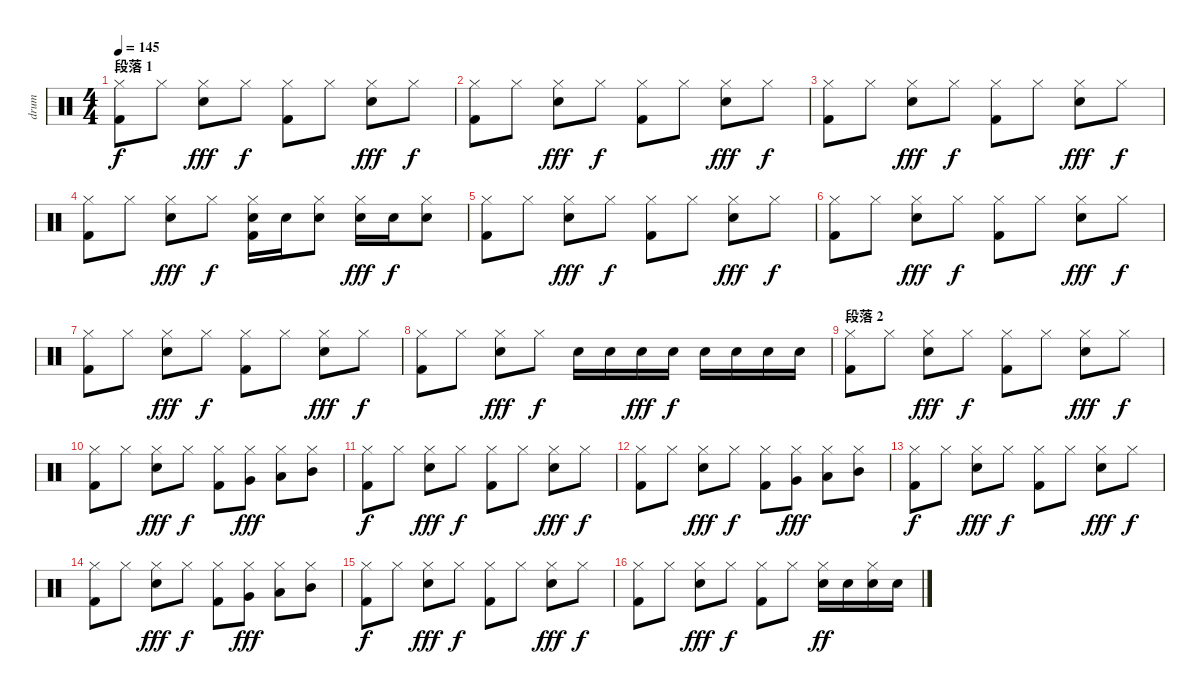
\track ("drum" "drum") {instrument percussion}
\staff {score}
\articulation defaults
\ts (4 4)
\section ("" "段落 1")
\tempo 145
\clef neutral
\ks c
("Hi-Hat (closed)" "Kick (hit) 2").8{dy f} "Hi-Hat (closed)".8 ("Hi-Hat (closed)" "Electric Snare (hit)").8{dy fff} "Hi-Hat (closed)".8{dy f} ("Hi-Hat (closed)" "Kick (hit) 2").8 "Hi-Hat (closed)".8 ("Hi-Hat (closed)" "Electric Snare (hit)").8{dy fff} "Hi-Hat (closed)".8{dy f} |
("Hi-Hat (closed)" "Kick (hit) 2").8 "Hi-Hat (closed)".8 ("Hi-Hat (closed)" "Electric Snare (hit)").8{dy fff} "Hi-Hat (closed)".8{dy f} ("Hi-Hat (closed)" "Kick (hit) 2").8 "Hi-Hat (closed)".8 ("Hi-Hat (closed)" "Electric Snare (hit)").8{dy fff} "Hi-Hat (closed)".8{dy f} |
("Hi-Hat (closed)" "Kick (hit) 2").8 "Hi-Hat (closed)".8 ("Hi-Hat (closed)" "Electric Snare (hit)").8{dy fff} "Hi-Hat (closed)".8{dy f} ("Hi-Hat (closed)" "Kick (hit) 2").8 "Hi-Hat (closed)".8 ("Hi-Hat (closed)" "Electric Snare (hit)").8{dy fff} "Hi-Hat (closed)".8{dy f} |
("Hi-Hat (closed)" "Kick (hit) 2").8 "Hi-Hat (closed)".8 ("Hi-Hat (closed)" "Electric Snare (hit)").8{dy fff} "Hi-Hat (closed)".8{dy f} ("Hi-Hat (closed)" "Electric Snare (hit)" "Kick (hit) 2").16 "Electric Snare (hit)".16 ("Hi-Hat (closed)" "Electric Snare (hit)").8 ("Hi-Hat (closed)" "Electric Snare (hit)").16{dy fff} "Electric Snare (hit)".16{dy f} ("Hi-Hat (closed)" "Electric Snare (hit)").8 |
("Hi-Hat (closed)" "Kick (hit) 2").8 "Hi-Hat (closed)".8 ("Hi-Hat (closed)" "Electric Snare (hit)").8{dy fff} "Hi-Hat (closed)".8{dy f} ("Hi-Hat (closed)" "Kick (hit) 2").8 "Hi-Hat (closed)".8 ("Hi-Hat (closed)" "Electric Snare (hit)").8{dy fff} "Hi-Hat (closed)".8{dy f} |
("Hi-Hat (closed)" "Kick (hit) 2").8 "Hi-Hat (closed)".8 ("Hi-Hat (closed)" "Electric Snare (hit)").8{dy fff} "Hi-Hat (closed)".8{dy f} ("Hi-Hat (closed)" "Kick (hit) 2").8 "Hi-Hat (closed)".8 ("Hi-Hat (closed)" "Electric Snare (hit)").8{dy fff} "Hi-Hat (closed)".8{dy f} |
("Hi-Hat (closed)" "Kick (hit) 2").8 "Hi-Hat (closed)".8 ("Hi-Hat (closed)" "Electric Snare (hit)").8{dy fff} "Hi-Hat (closed)".8{dy f} ("Hi-Hat (closed)" "Kick (hit) 2").8 "Hi-Hat (closed)".8 ("Hi-Hat (closed)" "Electric Snare (hit)").8{dy fff} "Hi-Hat (closed)".8{dy f} |
("Hi-Hat (closed)" "Kick (hit) 2").8 "Hi-Hat (closed)".8 ("Hi-Hat (closed)" "Electric Snare (hit)").8{dy fff} "Hi-Hat (closed)".8{dy f} "Electric Snare (hit)".16 "Electric Snare (hit)".16 "Electric Snare (hit)".16{dy fff} "Electric Snare (hit)".16{dy f} "Electric Snare (hit)".16 "Electric Snare (hit)".16 "Electric Snare (hit)".16 "Electric Snare (hit)".16 |
\section ("" "段落 2")
("Hi-Hat (closed)" "Kick (hit) 2").8 "Hi-Hat (closed)".8 ("Hi-Hat (closed)" "Electric Snare (hit)").8{dy fff} "Hi-Hat (closed)".8{dy f} ("Hi-Hat (closed)" "Kick (hit) 2").8 "Hi-Hat (closed)".8 ("Hi-Hat (closed)" "Electric Snare (hit)").8{dy fff} "Hi-Hat (closed)".8{dy f} |
("Hi-Hat (closed)" "Kick (hit) 2").8 "Hi-Hat (closed)".8 ("Hi-Hat (closed)" "Electric Snare (hit)").8{dy fff} "Hi-Hat (closed)".8{dy f} ("Hi-Hat (closed)" "Kick (hit) 2").8 ("Hi-Hat (closed)" "Very Low Tom (hit)").8{dy fff} ("Hi-Hat (closed)" "Low Tom (hit)").8 ("Hi-Hat (closed)" "Mid Tom (hit)").8 |
("Hi-Hat (closed)" "Kick (hit) 2").8{dy f} "Hi-Hat (closed)".8 ("Hi-Hat (closed)" "Electric Snare (hit)").8{dy fff} "Hi-Hat (closed)".8{dy f} ("Hi-Hat (closed)" "Kick (hit) 2").8 "Hi-Hat (closed)".8 ("Hi-Hat (closed)" "Electric Snare (hit)").8{dy fff} "Hi-Hat (closed)".8{dy f} |
("Hi-Hat (closed)" "Kick (hit) 2").8 "Hi-Hat (closed)".8 ("Hi-Hat (closed)" "Electric Snare (hit)").8{dy fff} "Hi-Hat (closed)".8{dy f} ("Hi-Hat (closed)" "Kick (hit) 2").8 ("Hi-Hat (closed)" "Very Low Tom (hit)").8{dy fff} ("Hi-Hat (closed)" "Low Tom (hit)").8 ("Hi-Hat (closed)" "Mid Tom (hit)").8 |
("Hi-Hat (closed)" "Kick (hit) 2").8{dy f} "Hi-Hat (closed)".8 ("Hi-Hat (closed)" "Electric Snare (hit)").8{dy fff} "Hi-Hat (closed)".8{dy f} ("Hi-Hat (closed)" "Kick (hit) 2").8 "Hi-Hat (closed)".8 ("Hi-Hat (closed)" "Electric Snare (hit)").8{dy fff} "Hi-Hat (closed)".8{dy f} |
("Hi-Hat (closed)" "Kick (hit) 2").8 "Hi-Hat (closed)".8 ("Hi-Hat (closed)" "Electric Snare (hit)").8{dy fff} "Hi-Hat (closed)".8{dy f} ("Hi-Hat (closed)" "Kick (hit) 2").8 ("Hi-Hat (closed)" "Very Low Tom (hit)").8{dy fff} ("Hi-Hat (closed)" "Low Tom (hit)").8 ("Hi-Hat (closed)" "Mid Tom (hit)").8 |
("Hi-Hat (closed)" "Kick (hit) 2").8{dy f} "Hi-Hat (closed)".8 ("Hi-Hat (closed)" "Electric Snare (hit)").8{dy fff} "Hi-Hat (closed)".8{dy f} ("Hi-Hat (closed)" "Kick (hit) 2").8 "Hi-Hat (closed)".8 ("Hi-Hat (closed)" "Electric Snare (hit)").8{dy fff} "Hi-Hat (closed)".8{dy f} |
("Hi-Hat (closed)" "Kick (hit) 2").8 "Hi-Hat (closed)".8 ("Hi-Hat (closed)" "Electric Snare (hit)").8{dy fff} "Hi-Hat (closed)".8{dy f} ("Hi-Hat (closed)" "Kick (hit) 2").8 "Hi-Hat (closed)".8 ("Hi-Hat (closed)" "Electric Snare (hit)").16{dy ff} "Electric Snare (hit)".16 ("Hi-Hat (closed)" "Electric Snare (hit)").16 "Electric Snare (hit)".16
